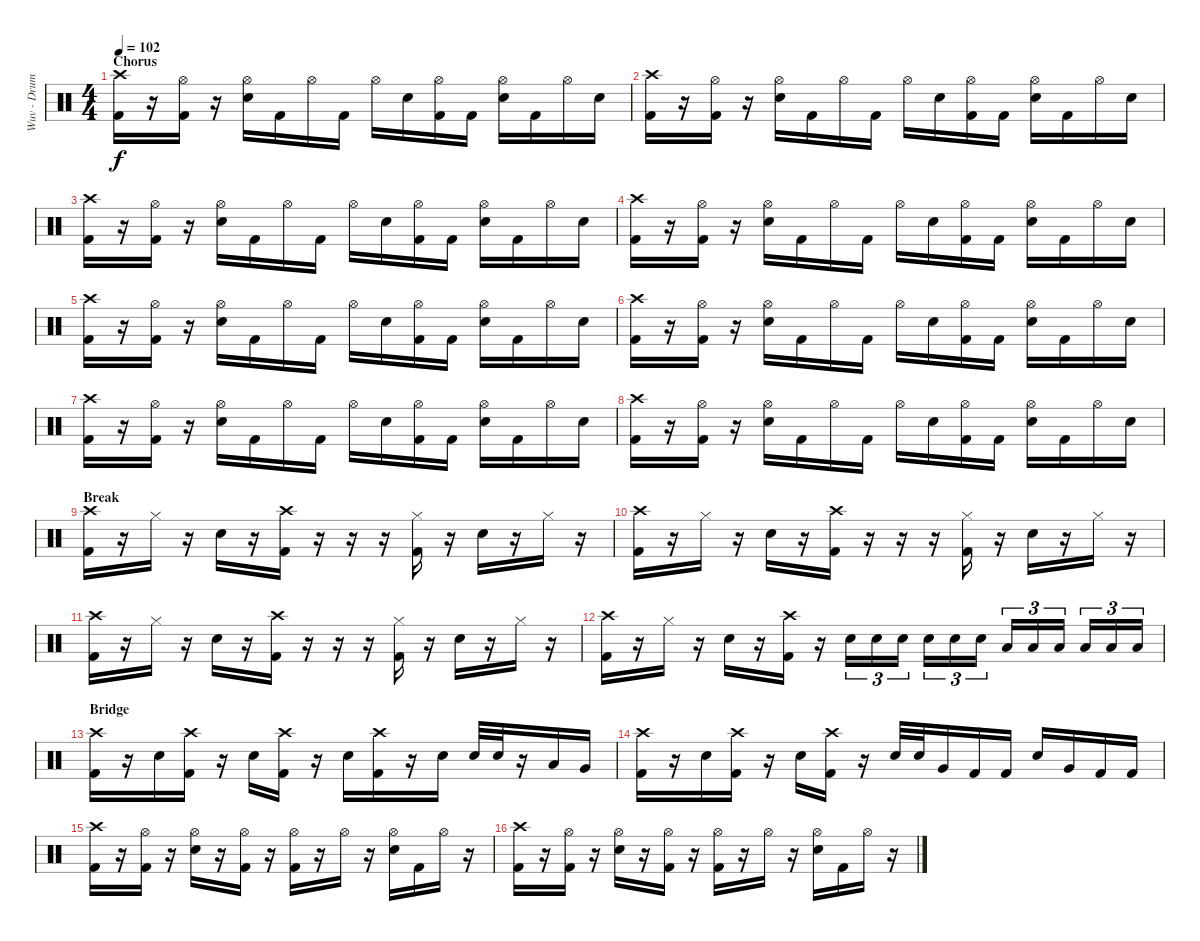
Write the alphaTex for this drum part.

\track ("Wuv - Drums" "Wuv - Drum") {instrument percussion}
\staff {score}
\articulation defaults
\ts (4 4)
\section ("" "Chorus")
\tempo 102
\clef neutral
\ks c
("Crash high (hit)" "Kick (hit) 2").16{dy f} r.16 ("Hi-Hat (open)" "Kick (hit) 2").16 r.16 ("Hi-Hat (open)" "Snare (hit) 2").16 "Kick (hit) 2".16 "Hi-Hat (open)".16 "Kick (hit) 2".16 "Hi-Hat (open)".16 "Snare (hit) 2".16 ("Hi-Hat (open)" "Kick (hit) 2").16 "Kick (hit) 2".16 ("Hi-Hat (open)" "Snare (hit) 2").16 "Kick (hit) 2".16 "Hi-Hat (open)".16 "Snare (hit) 2".16 |
("Crash high (hit)" "Kick (hit) 2").16 r.16 ("Hi-Hat (open)" "Kick (hit) 2").16 r.16 ("Hi-Hat (open)" "Snare (hit) 2").16 "Kick (hit) 2".16 "Hi-Hat (open)".16 "Kick (hit) 2".16 "Hi-Hat (open)".16 "Snare (hit) 2".16 ("Hi-Hat (open)" "Kick (hit) 2").16 "Kick (hit) 2".16 ("Hi-Hat (open)" "Snare (hit) 2").16 "Kick (hit) 2".16 "Hi-Hat (open)".16 "Snare (hit) 2".16 |
("Crash high (hit)" "Kick (hit) 2").16 r.16 ("Hi-Hat (open)" "Kick (hit) 2").16 r.16 ("Hi-Hat (open)" "Snare (hit) 2").16 "Kick (hit) 2".16 "Hi-Hat (open)".16 "Kick (hit) 2".16 "Hi-Hat (open)".16 "Snare (hit) 2".16 ("Hi-Hat (open)" "Kick (hit) 2").16 "Kick (hit) 2".16 ("Hi-Hat (open)" "Snare (hit) 2").16 "Kick (hit) 2".16 "Hi-Hat (open)".16 "Snare (hit) 2".16 |
("Crash high (hit)" "Kick (hit) 2").16 r.16 ("Hi-Hat (open)" "Kick (hit) 2").16 r.16 ("Hi-Hat (open)" "Snare (hit) 2").16 "Kick (hit) 2".16 "Hi-Hat (open)".16 "Kick (hit) 2".16 "Hi-Hat (open)".16 "Snare (hit) 2".16 ("Hi-Hat (open)" "Kick (hit) 2").16 "Kick (hit) 2".16 ("Hi-Hat (open)" "Snare (hit) 2").16 "Kick (hit) 2".16 "Hi-Hat (open)".16 "Snare (hit) 2".16 |
("Crash high (hit)" "Kick (hit) 2").16 r.16 ("Hi-Hat (open)" "Kick (hit) 2").16 r.16 ("Hi-Hat (open)" "Snare (hit) 2").16 "Kick (hit) 2".16 "Hi-Hat (open)".16 "Kick (hit) 2".16 "Hi-Hat (open)".16 "Snare (hit) 2".16 ("Hi-Hat (open)" "Kick (hit) 2").16 "Kick (hit) 2".16 ("Hi-Hat (open)" "Snare (hit) 2").16 "Kick (hit) 2".16 "Hi-Hat (open)".16 "Snare (hit) 2".16 |
("Crash high (hit)" "Kick (hit) 2").16 r.16 ("Hi-Hat (open)" "Kick (hit) 2").16 r.16 ("Hi-Hat (open)" "Snare (hit) 2").16 "Kick (hit) 2".16 "Hi-Hat (open)".16 "Kick (hit) 2".16 "Hi-Hat (open)".16 "Snare (hit) 2".16 ("Hi-Hat (open)" "Kick (hit) 2").16 "Kick (hit) 2".16 ("Hi-Hat (open)" "Snare (hit) 2").16 "Kick (hit) 2".16 "Hi-Hat (open)".16 "Snare (hit) 2".16 |
("Crash high (hit)" "Kick (hit) 2").16 r.16 ("Hi-Hat (open)" "Kick (hit) 2").16 r.16 ("Hi-Hat (open)" "Snare (hit) 2").16 "Kick (hit) 2".16 "Hi-Hat (open)".16 "Kick (hit) 2".16 "Hi-Hat (open)".16 "Snare (hit) 2".16 ("Hi-Hat (open)" "Kick (hit) 2").16 "Kick (hit) 2".16 ("Hi-Hat (open)" "Snare (hit) 2").16 "Kick (hit) 2".16 "Hi-Hat (open)".16 "Snare (hit) 2".16 |
("Crash high (hit)" "Kick (hit) 2").16 r.16 ("Hi-Hat (open)" "Kick (hit) 2").16 r.16 ("Hi-Hat (open)" "Snare (hit) 2").16 "Kick (hit) 2".16 "Hi-Hat (open)".16 "Kick (hit) 2".16 "Hi-Hat (open)".16 "Snare (hit) 2".16 ("Hi-Hat (open)" "Kick (hit) 2").16 "Kick (hit) 2".16 ("Hi-Hat (open)" "Snare (hit) 2").16 "Kick (hit) 2".16 "Hi-Hat (open)".16 "Snare (hit) 2".16 |
\section ("" "Break")
("Crash high (hit)" "Kick (hit) 2").16 r.16 "Hi-Hat (closed)".16 r.16 "Snare (hit) 2".16 r.16 ("Crash high (hit)" "Kick (hit) 2").16 r.16 r.16 r.16 ("Hi-Hat (closed)" "Kick (hit) 2").16 r.16 "Snare (hit) 2".16 r.16 "Hi-Hat (closed)".16 r.16 |
("Crash high (hit)" "Kick (hit) 2").16 r.16 "Hi-Hat (closed)".16 r.16 "Snare (hit) 2".16 r.16 ("Crash high (hit)" "Kick (hit) 2").16 r.16 r.16 r.16 ("Hi-Hat (closed)" "Kick (hit) 2").16 r.16 "Snare (hit) 2".16 r.16 "Hi-Hat (closed)".16 r.16 |
("Crash high (hit)" "Kick (hit) 2").16 r.16 "Hi-Hat (closed)".16 r.16 "Snare (hit) 2".16 r.16 ("Crash high (hit)" "Kick (hit) 2").16 r.16 r.16 r.16 ("Hi-Hat (closed)" "Kick (hit) 2").16 r.16 "Snare (hit) 2".16 r.16 "Hi-Hat (closed)".16 r.16 |
("Crash high (hit)" "Kick (hit) 2").16 r.16 "Hi-Hat (closed)".16 r.16 "Snare (hit) 2".16 r.16 ("Crash high (hit)" "Kick (hit) 2").16 r.16 "Electric Snare (hit)".16{tu (3 2)} "Electric Snare (hit)".16{tu (3 2)} "Electric Snare (hit)".16{tu (3 2)} "Electric Snare (hit)".16{tu (3 2)} "Electric Snare (hit)".16{tu (3 2)} "Electric Snare (hit)".16{tu (3 2)} "Low Tom (hit)".16{tu (3 2)} "Low Tom (hit)".16{tu (3 2)} "Low Tom (hit)".16{tu (3 2)} "Low Tom (hit)".16{tu (3 2)} "Low Tom (hit)".16{tu (3 2)} "Low Tom (hit)".16{tu (3 2)} |
\section ("" "Bridge")
("Crash high (hit)" "Kick (hit) 2").16 r.16 "Snare (hit) 2".16 ("Crash high (hit)" "Kick (hit) 2").16 r.16 "Snare (hit) 2".16 ("Crash high (hit)" "Kick (hit) 2").16 r.16 "Snare (hit) 2".16 ("Crash high (hit)" "Kick (hit) 2").16 r.16 "Snare (hit) 2".16 "Snare (hit) 2".32 "Snare (hit) 2".32 r.16 "Low Tom (hit)".16 "Very Low Tom (hit)".16 |
("Crash high (hit)" "Kick (hit) 2").16 r.16 "Snare (hit) 2".16 ("Crash high (hit)" "Kick (hit) 2").16 r.16 "Snare (hit) 2".16 ("Crash high (hit)" "Kick (hit) 2").16 r.16 "Snare (hit) 2".32 "Snare (hit) 2".32 "Very Low Tom (hit)".16 "Kick (hit) 2".16 "Kick (hit) 2".16 "Snare (hit) 2".16 "Very Low Tom (hit)".16 "Kick (hit) 2".16 "Kick (hit) 2".16 |
("Crash high (hit)" "Kick (hit) 2").16 r.16 ("Hi-Hat (open)" "Kick (hit) 2").16 r.16 ("Hi-Hat (open)" "Snare (hit) 2").16 r.16 ("Hi-Hat (open)" "Kick (hit) 2").16 r.16 ("Hi-Hat (open)" "Kick (hit) 2").16 r.16 "Hi-Hat (open)".16 r.16 ("Hi-Hat (open)" "Snare (hit) 2").16 "Kick (hit) 2".16 "Hi-Hat (open)".16 r.16 |
("Crash high (hit)" "Kick (hit) 2").16 r.16 ("Hi-Hat (open)" "Kick (hit) 2").16 r.16 ("Hi-Hat (open)" "Snare (hit) 2").16 r.16 ("Hi-Hat (open)" "Kick (hit) 2").16 r.16 ("Hi-Hat (open)" "Kick (hit) 2").16 r.16 "Hi-Hat (open)".16 r.16 ("Hi-Hat (open)" "Snare (hit) 2").16 "Kick (hit) 2".16 "Hi-Hat (open)".16 r.16
